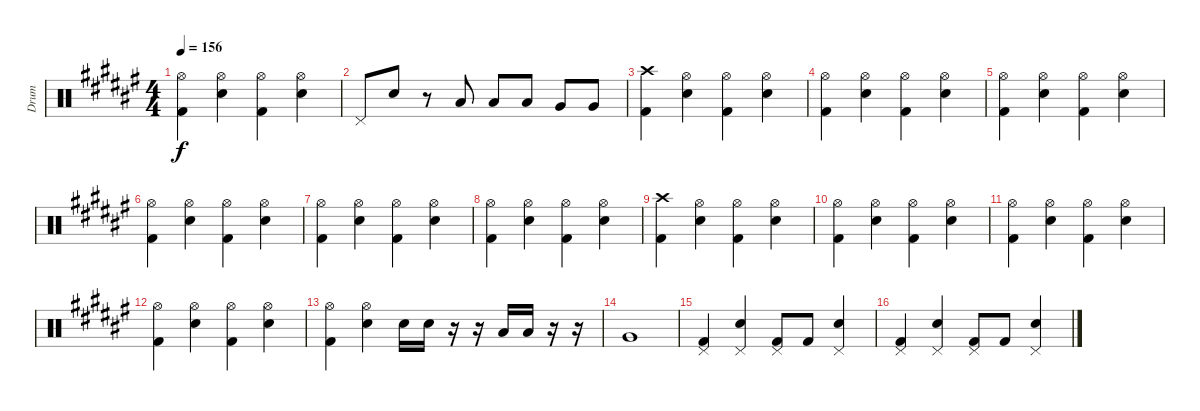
\track ("Drum" "Drum") {instrument percussion}
\staff {score}
\articulation defaults
\ts (4 4)
\tempo 156
\clef neutral
\ks f#
("Hi-Hat (open)" "Kick (hit) 2").4{dy f} ("Hi-Hat (open)" "Electric Snare (hit)").4 ("Hi-Hat (open)" "Kick (hit) 2").4 ("Hi-Hat (open)" "Electric Snare (hit)").4 |
"Pedal Hi-Hat (hit)".8 "Electric Snare (hit)".8 r.8 "Low Floor Tom (hit)".8 "Low Tom (hit)".8 "Low Tom (hit)".8 "Very Low Tom (hit)".8 "Very Low Tom (hit)".8 |
("Crash high (hit)" "Kick (hit) 2").4 ("Hi-Hat (open)" "Electric Snare (hit)").4 ("Hi-Hat (open)" "Kick (hit) 2").4 ("Hi-Hat (open)" "Electric Snare (hit)").4 |
("Hi-Hat (open)" "Kick (hit) 2").4 ("Hi-Hat (open)" "Electric Snare (hit)").4 ("Hi-Hat (open)" "Kick (hit) 2").4 ("Hi-Hat (open)" "Electric Snare (hit)").4 |
("Hi-Hat (open)" "Kick (hit) 2").4 ("Hi-Hat (open)" "Electric Snare (hit)").4 ("Hi-Hat (open)" "Kick (hit) 2").4 ("Hi-Hat (open)" "Electric Snare (hit)").4 |
("Hi-Hat (open)" "Kick (hit) 2").4 ("Hi-Hat (open)" "Electric Snare (hit)").4 ("Hi-Hat (open)" "Kick (hit) 2").4 ("Hi-Hat (open)" "Electric Snare (hit)").4 |
("Hi-Hat (open)" "Kick (hit) 2").4 ("Hi-Hat (open)" "Electric Snare (hit)").4 ("Hi-Hat (open)" "Kick (hit) 2").4 ("Hi-Hat (open)" "Electric Snare (hit)").4 |
("Hi-Hat (open)" "Kick (hit) 2").4 ("Hi-Hat (open)" "Electric Snare (hit)").4 ("Hi-Hat (open)" "Kick (hit) 2").4 ("Hi-Hat (open)" "Electric Snare (hit)").4 |
("Crash high (hit)" "Kick (hit) 2").4 ("Hi-Hat (open)" "Electric Snare (hit)").4 ("Hi-Hat (open)" "Kick (hit) 2").4 ("Hi-Hat (open)" "Electric Snare (hit)").4 |
("Hi-Hat (open)" "Kick (hit) 2").4 ("Hi-Hat (open)" "Electric Snare (hit)").4 ("Hi-Hat (open)" "Kick (hit) 2").4 ("Hi-Hat (open)" "Electric Snare (hit)").4 |
("Hi-Hat (open)" "Kick (hit) 2").4 ("Hi-Hat (open)" "Electric Snare (hit)").4 ("Hi-Hat (open)" "Kick (hit) 2").4 ("Hi-Hat (open)" "Electric Snare (hit)").4 |
("Hi-Hat (open)" "Kick (hit) 2").4 ("Hi-Hat (open)" "Electric Snare (hit)").4 ("Hi-Hat (open)" "Kick (hit) 2").4 ("Hi-Hat (open)" "Electric Snare (hit)").4 |
("Hi-Hat (open)" "Kick (hit) 2").4 ("Hi-Hat (open)" "Electric Snare (hit)").4 "Electric Snare (hit)".16 "Electric Snare (hit)".16 r.16 r.16 "Low Tom (hit)".16 "Low Tom (hit)".16 r.16 r.16 |
"Very Low Tom (hit)".1 |
("Pedal Hi-Hat (hit)" "Kick (hit) 2").4 ("Pedal Hi-Hat (hit)" "Electric Snare (hit)").4 ("Pedal Hi-Hat (hit)" "Kick (hit) 2").8 "Kick (hit) 2".8 ("Pedal Hi-Hat (hit)" "Electric Snare (hit)").4 |
("Pedal Hi-Hat (hit)" "Kick (hit) 2").4 ("Pedal Hi-Hat (hit)" "Electric Snare (hit)").4 ("Pedal Hi-Hat (hit)" "Kick (hit) 2").8 "Kick (hit) 2".8 ("Pedal Hi-Hat (hit)" "Electric Snare (hit)").4
